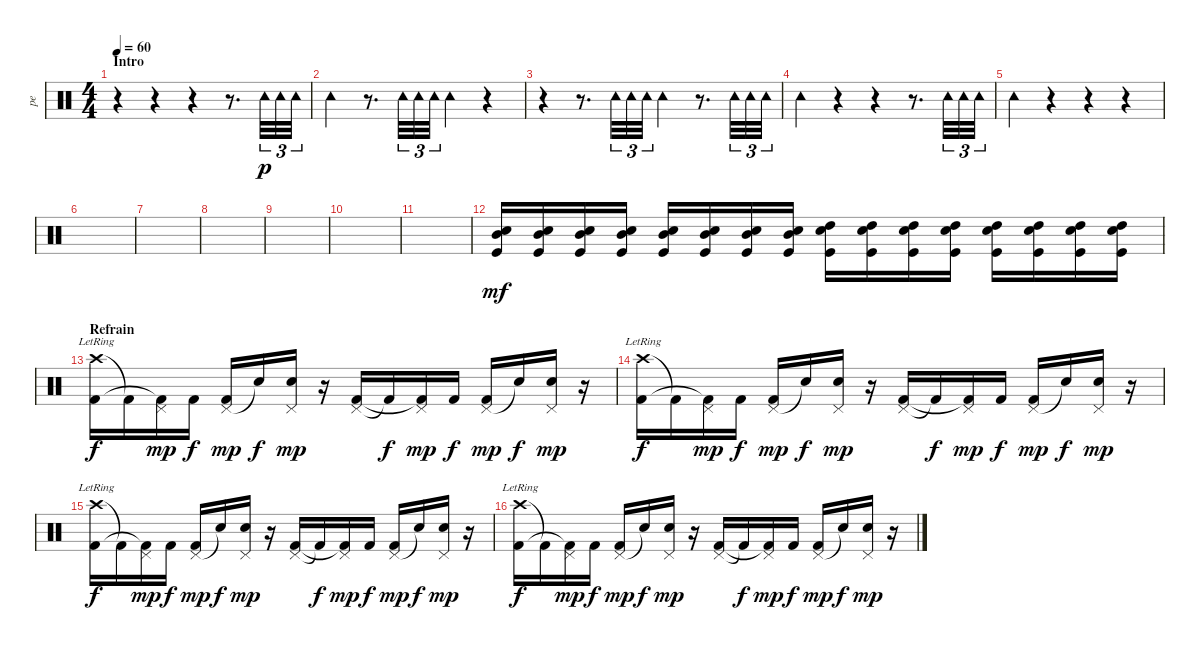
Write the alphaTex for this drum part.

\track ("pe" "pe") {instrument percussion}
\staff {score}
\articulation defaults
\ts (4 4)
\section ("" "Intro")
\tempo 60
\clef neutral
\ks c
r.4{dy p} r.4 r.4 r.8{d} "Tambourine (hit)".32{tu (3 2)} "Tambourine (hit)".32{tu (3 2)} "Tambourine (hit)".32{tu (3 2)} |
"Tambourine (hit)".4 r.8{d} "Tambourine (hit)".32{tu (3 2)} "Tambourine (hit)".32{tu (3 2)} "Tambourine (hit)".32{tu (3 2)} "Tambourine (hit)".4 r.4 |
r.4 r.8{d} "Tambourine (hit)".32{tu (3 2)} "Tambourine (hit)".32{tu (3 2)} "Tambourine (hit)".32{tu (3 2)} "Tambourine (hit)".4 r.8{d} "Tambourine (hit)".32{tu (3 2)} "Tambourine (hit)".32{tu (3 2)} "Tambourine (hit)".32{tu (3 2)} |
"Tambourine (hit)".4 r.4 r.4 r.8{d} "Tambourine (hit)".32{tu (3 2)} "Tambourine (hit)".32{tu (3 2)} "Tambourine (hit)".32{tu (3 2)} |
"Tambourine (hit)".4 r.4 r.4 r.4 |
|
|
|
|
|
|
("Snare (hit) 2" "Mid Tom (hit)" "Kick (hit)").16{dy mf volume 1} ("Snare (hit) 2" "Mid Tom (hit)" "Kick (hit)").16{volume 15} ("Snare (hit) 2" "Mid Tom (hit)" "Kick (hit)").16{volume 3} ("Snare (hit) 2" "Mid Tom (hit)" "Kick (hit)").16{volume 4} ("Snare (hit) 2" "Mid Tom (hit)" "Kick (hit)").16 ("Snare (hit) 2" "Mid Tom (hit)" "Kick (hit)").16 ("Snare (hit) 2" "Mid Tom (hit)" "Kick (hit)").16 ("Snare (hit) 2" "Mid Tom (hit)" "Kick (hit)").16 ("Snare (hit) 2" "High Tom (hit)" "Kick (hit)").16 ("Snare (hit) 2" "High Tom (hit)" "Kick (hit)").16 ("Snare (hit) 2" "High Tom (hit)" "Kick (hit)").16 ("Snare (hit) 2" "High Tom (hit)" "Kick (hit)").16 ("Snare (hit) 2" "High Tom (hit)" "Kick (hit)").16 ("Snare (hit) 2" "High Tom (hit)" "Kick (hit)").16 ("Snare (hit) 2" "High Tom (hit)" "Kick (hit)").16 ("Snare (hit) 2" "High Tom (hit)" "Kick (hit)").16 |
\section ("" "Refrain")
("Crash high (hit)"{lr} "Kick (hit) 2").16{dy f} "Kick (hit) 2"{t}.16 ("Pedal Hi-Hat (hit)" "Kick (hit) 2"{t}).16{dy mp} "Kick (hit) 2".16{dy f} ("Pedal Hi-Hat (hit)" "Kick (hit) 2").16{dy mp} "Snare (hit)"{t}.16{dy f} ("Pedal Hi-Hat (hit)" "Snare (hit) 2").16{dy mp} r.16 ("Pedal Hi-Hat (hit)" "Kick (hit) 2").16 "Kick (hit) 2"{t}.16{dy f} ("Pedal Hi-Hat (hit)" "Kick (hit) 2"{t}).16{dy mp} "Kick (hit) 2".16{dy f} ("Pedal Hi-Hat (hit)" "Kick (hit) 2").16{dy mp} "Snare (hit)"{t}.16{dy f} ("Pedal Hi-Hat (hit)" "Snare (hit) 2").16{dy mp} r.16 |
("Crash high (hit)"{lr} "Kick (hit) 2").16{dy f} "Kick (hit) 2"{t}.16 ("Pedal Hi-Hat (hit)" "Kick (hit) 2"{t}).16{dy mp} "Kick (hit) 2".16{dy f} ("Pedal Hi-Hat (hit)" "Kick (hit) 2").16{dy mp} "Snare (hit)"{t}.16{dy f} ("Pedal Hi-Hat (hit)" "Snare (hit) 2").16{dy mp} r.16 ("Pedal Hi-Hat (hit)" "Kick (hit) 2").16 "Kick (hit) 2"{t}.16{dy f} ("Pedal Hi-Hat (hit)" "Kick (hit) 2"{t}).16{dy mp} "Kick (hit) 2".16{dy f} ("Pedal Hi-Hat (hit)" "Kick (hit) 2").16{dy mp} "Snare (hit)"{t}.16{dy f} ("Pedal Hi-Hat (hit)" "Snare (hit) 2").16{dy mp} r.16 |
("Crash high (hit)"{lr} "Kick (hit) 2").16{dy f} "Kick (hit) 2"{t}.16 ("Pedal Hi-Hat (hit)" "Kick (hit) 2"{t}).16{dy mp} "Kick (hit) 2".16{dy f} ("Pedal Hi-Hat (hit)" "Kick (hit) 2").16{dy mp} "Snare (hit)"{t}.16{dy f} ("Pedal Hi-Hat (hit)" "Snare (hit) 2").16{dy mp} r.16 ("Pedal Hi-Hat (hit)" "Kick (hit) 2").16 "Kick (hit) 2"{t}.16{dy f} ("Pedal Hi-Hat (hit)" "Kick (hit) 2"{t}).16{dy mp} "Kick (hit) 2".16{dy f} ("Pedal Hi-Hat (hit)" "Kick (hit) 2").16{dy mp} "Snare (hit)"{t}.16{dy f} ("Pedal Hi-Hat (hit)" "Snare (hit) 2").16{dy mp} r.16 |
("Crash high (hit)"{lr} "Kick (hit) 2").16{dy f} "Kick (hit) 2"{t}.16 ("Pedal Hi-Hat (hit)" "Kick (hit) 2"{t}).16{dy mp} "Kick (hit) 2".16{dy f} ("Pedal Hi-Hat (hit)" "Kick (hit) 2").16{dy mp} "Snare (hit)"{t}.16{dy f} ("Pedal Hi-Hat (hit)" "Snare (hit) 2").16{dy mp} r.16 ("Pedal Hi-Hat (hit)" "Kick (hit) 2").16 "Kick (hit) 2"{t}.16{dy f} ("Pedal Hi-Hat (hit)" "Kick (hit) 2"{t}).16{dy mp} "Kick (hit) 2".16{dy f} ("Pedal Hi-Hat (hit)" "Kick (hit) 2").16{dy mp} "Snare (hit)"{t}.16{dy f} ("Pedal Hi-Hat (hit)" "Snare (hit) 2").16{dy mp} r.16
